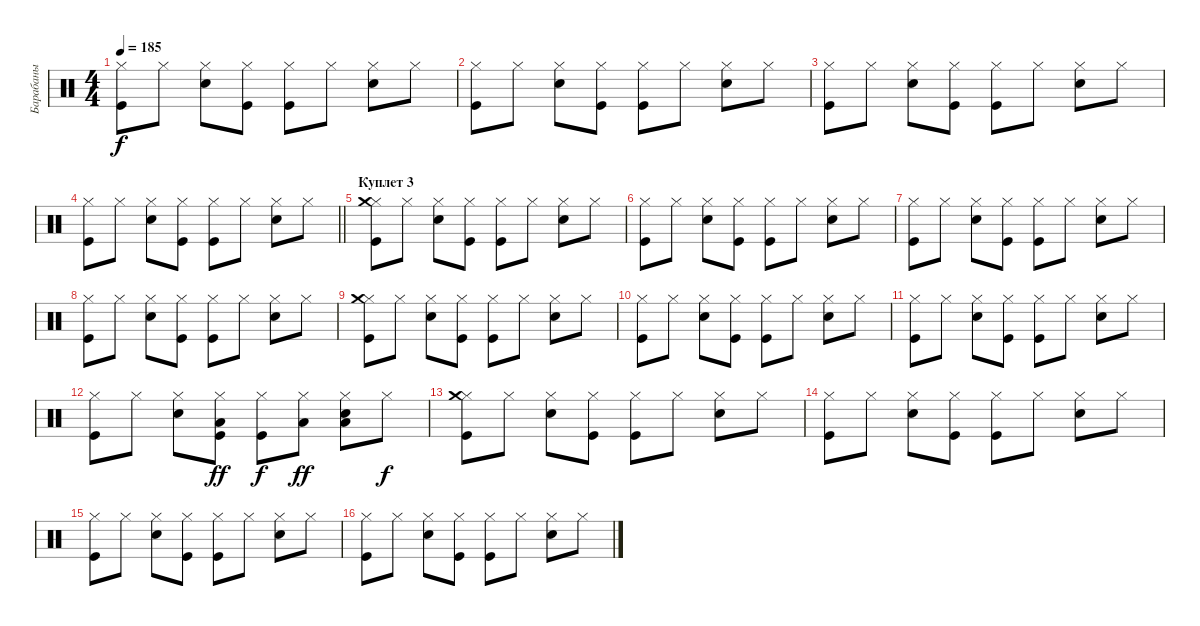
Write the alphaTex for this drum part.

\track ("Барабаны" "Барабаны") {instrument percussion}
\staff {score}
\articulation defaults
\ts (4 4)
\tempo 185
\clef neutral
\ks c
("Kick (hit)" "Hi-Hat (closed)").8{dy f} "Hi-Hat (closed)".8 ("Snare (hit) 2" "Hi-Hat (closed)").8 ("Kick (hit)" "Hi-Hat (closed)").8 ("Kick (hit)" "Hi-Hat (closed)").8 "Hi-Hat (closed)".8 ("Snare (hit) 2" "Hi-Hat (closed)").8 "Hi-Hat (closed)".8 |
("Kick (hit)" "Hi-Hat (closed)").8 "Hi-Hat (closed)".8 ("Snare (hit) 2" "Hi-Hat (closed)").8 ("Kick (hit)" "Hi-Hat (closed)").8 ("Kick (hit)" "Hi-Hat (closed)").8 "Hi-Hat (closed)".8 ("Snare (hit) 2" "Hi-Hat (closed)").8 "Hi-Hat (closed)".8 |
("Kick (hit)" "Hi-Hat (closed)").8 "Hi-Hat (closed)".8 ("Snare (hit) 2" "Hi-Hat (closed)").8 ("Kick (hit)" "Hi-Hat (closed)").8 ("Kick (hit)" "Hi-Hat (closed)").8 "Hi-Hat (closed)".8 ("Snare (hit) 2" "Hi-Hat (closed)").8 "Hi-Hat (closed)".8 |
\barLineRight lightlight
("Kick (hit)" "Hi-Hat (closed)").8 "Hi-Hat (closed)".8 ("Snare (hit) 2" "Hi-Hat (closed)").8 ("Kick (hit)" "Hi-Hat (closed)").8 ("Kick (hit)" "Hi-Hat (closed)").8 "Hi-Hat (closed)".8 ("Snare (hit) 2" "Hi-Hat (closed)").8 "Hi-Hat (closed)".8 |
\section ("" "Куплет 3")
("Kick (hit)" "Hi-Hat (closed)" "Crash medium (hit)").8 "Hi-Hat (closed)".8 ("Snare (hit) 2" "Hi-Hat (closed)").8 ("Kick (hit)" "Hi-Hat (closed)").8 ("Kick (hit)" "Hi-Hat (closed)").8 "Hi-Hat (closed)".8 ("Snare (hit) 2" "Hi-Hat (closed)").8 "Hi-Hat (closed)".8 |
("Kick (hit)" "Hi-Hat (closed)").8 "Hi-Hat (closed)".8 ("Snare (hit) 2" "Hi-Hat (closed)").8 ("Kick (hit)" "Hi-Hat (closed)").8 ("Kick (hit)" "Hi-Hat (closed)").8 "Hi-Hat (closed)".8 ("Snare (hit) 2" "Hi-Hat (closed)").8 "Hi-Hat (closed)".8 |
("Kick (hit)" "Hi-Hat (closed)").8 "Hi-Hat (closed)".8 ("Snare (hit) 2" "Hi-Hat (closed)").8 ("Kick (hit)" "Hi-Hat (closed)").8 ("Kick (hit)" "Hi-Hat (closed)").8 "Hi-Hat (closed)".8 ("Snare (hit) 2" "Hi-Hat (closed)").8 "Hi-Hat (closed)".8 |
("Kick (hit)" "Hi-Hat (closed)").8 "Hi-Hat (closed)".8 ("Snare (hit) 2" "Hi-Hat (closed)").8 ("Kick (hit)" "Hi-Hat (closed)").8 ("Kick (hit)" "Hi-Hat (closed)").8 "Hi-Hat (closed)".8 ("Snare (hit) 2" "Hi-Hat (closed)").8 "Hi-Hat (closed)".8 |
("Kick (hit)" "Hi-Hat (closed)" "Crash medium (hit)").8 "Hi-Hat (closed)".8 ("Snare (hit) 2" "Hi-Hat (closed)").8 ("Kick (hit)" "Hi-Hat (closed)").8 ("Kick (hit)" "Hi-Hat (closed)").8 "Hi-Hat (closed)".8 ("Snare (hit) 2" "Hi-Hat (closed)").8 "Hi-Hat (closed)".8 |
("Kick (hit)" "Hi-Hat (closed)").8 "Hi-Hat (closed)".8 ("Snare (hit) 2" "Hi-Hat (closed)").8 ("Kick (hit)" "Hi-Hat (closed)").8 ("Kick (hit)" "Hi-Hat (closed)").8 "Hi-Hat (closed)".8 ("Snare (hit) 2" "Hi-Hat (closed)").8 "Hi-Hat (closed)".8 |
("Kick (hit)" "Hi-Hat (closed)").8 "Hi-Hat (closed)".8 ("Snare (hit) 2" "Hi-Hat (closed)").8 ("Kick (hit)" "Hi-Hat (closed)").8 ("Kick (hit)" "Hi-Hat (closed)").8 "Hi-Hat (closed)".8 ("Snare (hit) 2" "Hi-Hat (closed)").8 "Hi-Hat (closed)".8 |
("Kick (hit)" "Hi-Hat (closed)").8 "Hi-Hat (closed)".8 ("Snare (hit) 2" "Hi-Hat (closed)").8 ("Kick (hit)" "Hi-Hat (closed)" "Low Floor Tom (hit)").8{dy ff} ("Kick (hit)" "Hi-Hat (closed)").8{dy f} ("Hi-Hat (closed)" "Low Floor Tom (hit)").8{dy ff} ("Snare (hit) 2" "Hi-Hat (closed)" "Low Floor Tom (hit)").8 "Hi-Hat (closed)".8{dy f} |
("Kick (hit)" "Hi-Hat (closed)" "Crash medium (hit)").8 "Hi-Hat (closed)".8 ("Snare (hit) 2" "Hi-Hat (closed)").8 ("Kick (hit)" "Hi-Hat (closed)").8 ("Kick (hit)" "Hi-Hat (closed)").8 "Hi-Hat (closed)".8 ("Snare (hit) 2" "Hi-Hat (closed)").8 "Hi-Hat (closed)".8 |
("Kick (hit)" "Hi-Hat (closed)").8 "Hi-Hat (closed)".8 ("Snare (hit) 2" "Hi-Hat (closed)").8 ("Kick (hit)" "Hi-Hat (closed)").8 ("Kick (hit)" "Hi-Hat (closed)").8 "Hi-Hat (closed)".8 ("Snare (hit) 2" "Hi-Hat (closed)").8 "Hi-Hat (closed)".8 |
("Kick (hit)" "Hi-Hat (closed)").8 "Hi-Hat (closed)".8 ("Snare (hit) 2" "Hi-Hat (closed)").8 ("Kick (hit)" "Hi-Hat (closed)").8 ("Kick (hit)" "Hi-Hat (closed)").8 "Hi-Hat (closed)".8 ("Snare (hit) 2" "Hi-Hat (closed)").8 "Hi-Hat (closed)".8 |
("Kick (hit)" "Hi-Hat (closed)").8 "Hi-Hat (closed)".8 ("Snare (hit) 2" "Hi-Hat (closed)").8 ("Kick (hit)" "Hi-Hat (closed)").8 ("Kick (hit)" "Hi-Hat (closed)").8 "Hi-Hat (closed)".8 ("Snare (hit) 2" "Hi-Hat (closed)").8 "Hi-Hat (closed)".8
